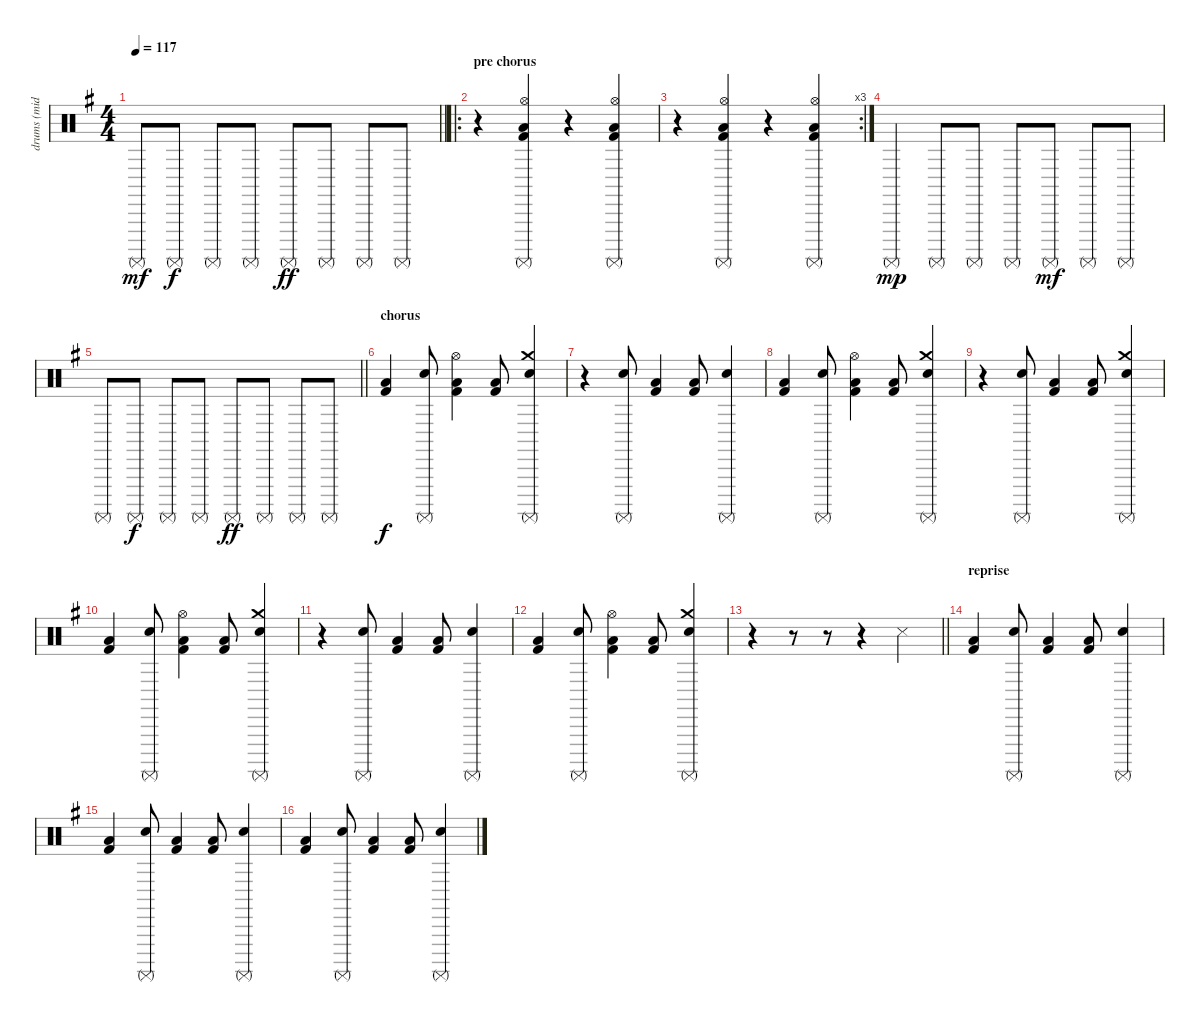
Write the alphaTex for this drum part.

\track ("drums (midi sounds better)" "drums (mid") {instrument percussion}
\staff {score}
\articulation defaults
\ts (4 4)
\tempo 117
\clef neutral
\barLineRight lightlight
\ks g "Surdo (mute)".8{dy mf} "Surdo (mute)".8{dy f} "Surdo (mute)".8 "Surdo (mute)".8 "Surdo (mute)".8{dy ff} "Surdo (mute)".8 "Surdo (mute)".8 "Surdo (mute)".8
|
\ro
\section ("" "pre chorus")
r.4 ("Kick (hit) 2" "Surdo (mute)" "Low Floor Tom (hit)" "Hi-Hat (open)").4 r.4 ("Kick (hit) 2" "Surdo (mute)" "Low Floor Tom (hit)" "Hi-Hat (open)").4 |
\rc 3
r.4 ("Kick (hit) 2" "Surdo (mute)" "Low Floor Tom (hit)" "Hi-Hat (open)").4 r.4 ("Kick (hit) 2" "Surdo (mute)" "Low Floor Tom (hit)" "Hi-Hat (open)").4 |
"Surdo (mute)".4{dy mp} "Surdo (mute)".8 "Surdo (mute)".8 "Surdo (mute)".8 "Surdo (mute)".8{dy mf} "Surdo (mute)".8 "Surdo (mute)".8 |
\barLineRight lightlight "Surdo (mute)".8 "Surdo (mute)".8{dy f} "Surdo (mute)".8 "Surdo (mute)".8 "Surdo (mute)".8{dy ff} "Surdo (mute)".8 "Surdo (mute)".8 "Surdo (mute)".8
|
\section ("" "chorus")
("Kick (hit) 2" "Low Floor Tom (hit)").4{dy f} ("Snare (hit) 2" "Surdo (mute)").8 ("Kick (hit) 2" "Low Floor Tom (hit)" "Hi-Hat (open)").4 ("Kick (hit) 2" "Low Floor Tom (hit)").8 ("Snare (hit) 2" "Surdo (mute)" "Crash medium (hit)").4 |
r.4 ("Snare (hit) 2" "Surdo (mute)").8 ("Kick (hit) 2" "Low Floor Tom (hit)").4 ("Kick (hit) 2" "Low Floor Tom (hit)").8 ("Snare (hit) 2" "Surdo (mute)").4 |
("Kick (hit) 2" "Low Floor Tom (hit)").4 ("Snare (hit) 2" "Surdo (mute)").8 ("Kick (hit) 2" "Low Floor Tom (hit)" "Hi-Hat (open)").4 ("Kick (hit) 2" "Low Floor Tom (hit)").8 ("Snare (hit) 2" "Surdo (mute)" "Crash medium (hit)").4 |
r.4 ("Snare (hit) 2" "Surdo (mute)").8 ("Kick (hit) 2" "Low Floor Tom (hit)").4 ("Kick (hit) 2" "Low Floor Tom (hit)").8 ("Snare (hit) 2" "Surdo (mute)" "Crash medium (hit)").4 |
("Kick (hit) 2" "Low Floor Tom (hit)").4 ("Snare (hit) 2" "Surdo (mute)").8 ("Kick (hit) 2" "Low Floor Tom (hit)" "Hi-Hat (open)").4 ("Kick (hit) 2" "Low Floor Tom (hit)").8 ("Snare (hit) 2" "Surdo (mute)" "Crash medium (hit)").4 |
r.4 ("Snare (hit) 2" "Surdo (mute)").8 ("Kick (hit) 2" "Low Floor Tom (hit)").4 ("Kick (hit) 2" "Low Floor Tom (hit)").8 ("Snare (hit) 2" "Surdo (mute)").4 |
("Kick (hit) 2" "Low Floor Tom (hit)").4 ("Snare (hit) 2" "Surdo (mute)").8 ("Kick (hit) 2" "Low Floor Tom (hit)" "Hi-Hat (open)").4 ("Kick (hit) 2" "Low Floor Tom (hit)").8 ("Snare (hit) 2" "Surdo (mute)" "Crash medium (hit)").4 |
\barLineRight lightlight
r.4 r.8 r.8 r.4 "Snare (side stick) 3".4 |
\section ("" "reprise")
("Kick (hit) 2" "Low Floor Tom (hit)").4 ("Snare (hit) 2" "Surdo (mute)").8 ("Kick (hit) 2" "Low Floor Tom (hit)").4 ("Kick (hit) 2" "Low Floor Tom (hit)").8 ("Snare (hit) 2" "Surdo (mute)").4 |
("Kick (hit) 2" "Low Floor Tom (hit)").4 ("Snare (hit) 2" "Surdo (mute)").8 ("Kick (hit) 2" "Low Floor Tom (hit)").4 ("Kick (hit) 2" "Low Floor Tom (hit)").8 ("Snare (hit) 2" "Surdo (mute)").4 |
("Kick (hit) 2" "Low Floor Tom (hit)").4 ("Snare (hit) 2" "Surdo (mute)").8 ("Kick (hit) 2" "Low Floor Tom (hit)").4 ("Kick (hit) 2" "Low Floor Tom (hit)").8 ("Snare (hit) 2" "Surdo (mute)").4
